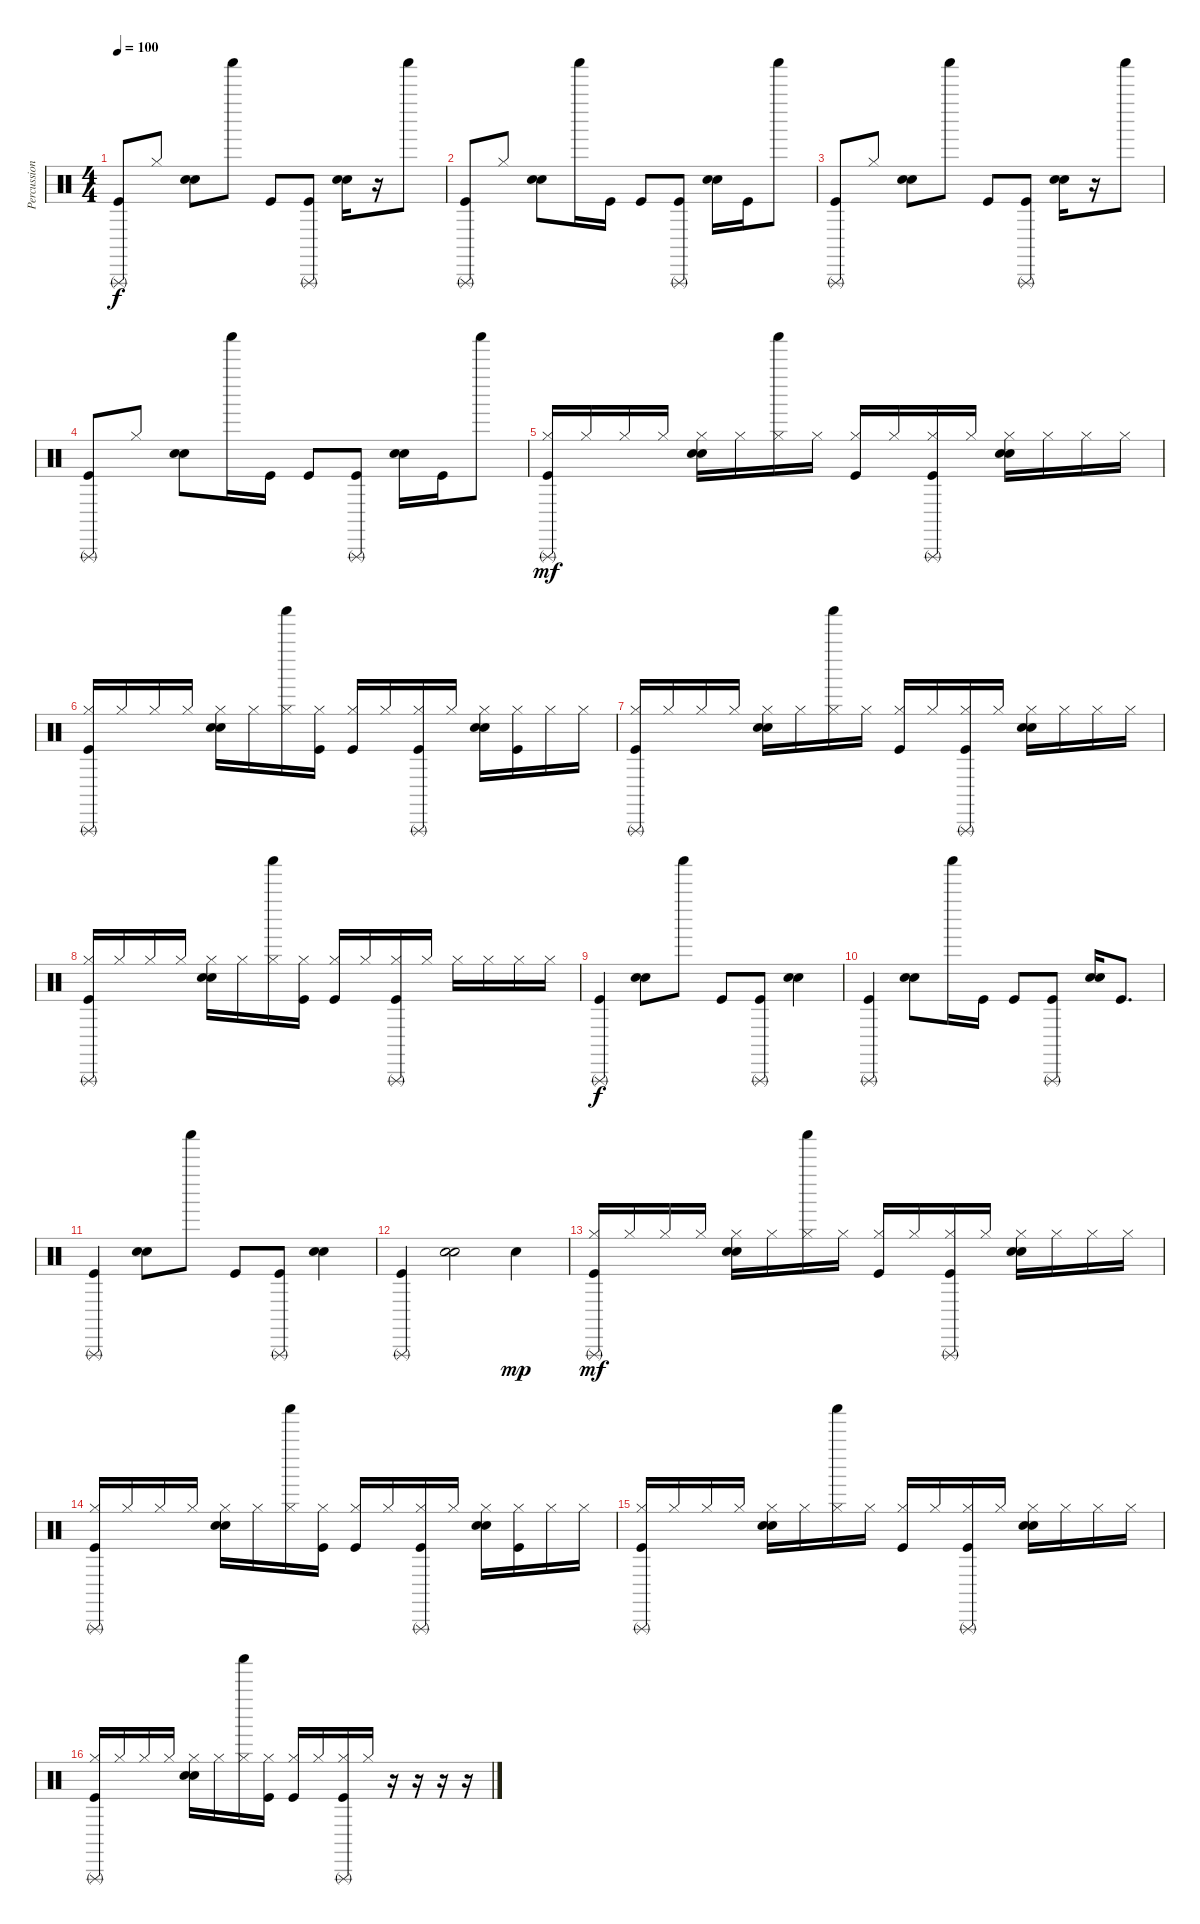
\track ("Percussion" "Percussion") {instrument percussion}
\staff {score}
\articulation defaults
\ts (4 4)
\tempo 100
\clef neutral
\ks c
("Triangle (rnute)" "Kick (hit)").8{dy f} "Hi-Hat (closed)".8 ("Hand Clap (hit)" "Electric Snare (hit)").8 "Shaker (hit)".8 "Kick (hit)".8 ("Triangle (rnute)" "Kick (hit)").8 ("Hand Clap (hit)" "Electric Snare (hit)").16 r.16 "Shaker (hit)".8 |
("Triangle (rnute)" "Kick (hit)").8 "Hi-Hat (closed)".8 ("Hand Clap (hit)" "Electric Snare (hit)").8 "Shaker (hit)".16 "Kick (hit)".16 "Kick (hit)".8 ("Triangle (rnute)" "Kick (hit)").8 ("Hand Clap (hit)" "Electric Snare (hit)").16 "Kick (hit)".16 "Shaker (hit)".8 |
("Triangle (rnute)" "Kick (hit)").8 "Hi-Hat (closed)".8 ("Hand Clap (hit)" "Electric Snare (hit)").8 "Shaker (hit)".8 "Kick (hit)".8 ("Triangle (rnute)" "Kick (hit)").8 ("Hand Clap (hit)" "Electric Snare (hit)").16 r.16 "Shaker (hit)".8 |
("Triangle (rnute)" "Kick (hit)").8 "Hi-Hat (closed)".8 ("Hand Clap (hit)" "Electric Snare (hit)").8 "Shaker (hit)".16 "Kick (hit)".16 "Kick (hit)".8 ("Triangle (rnute)" "Kick (hit)").8 ("Hand Clap (hit)" "Electric Snare (hit)").16 "Kick (hit)".16 "Shaker (hit)".8 |
("Triangle (rnute)" "Hi-Hat (closed)" "Kick (hit)").16{dy mf} "Hi-Hat (closed)".16 "Hi-Hat (closed)".16 "Hi-Hat (closed)".16 ("Hi-Hat (closed)" "Hand Clap (hit)" "Electric Snare (hit)").16 "Hi-Hat (closed)".16 ("Shaker (hit)" "Hi-Hat (closed)").16 "Hi-Hat (closed)".16 ("Hi-Hat (closed)" "Kick (hit)").16 "Hi-Hat (closed)".16 ("Triangle (rnute)" "Hi-Hat (closed)" "Kick (hit)").16 "Hi-Hat (closed)".16 ("Hi-Hat (closed)" "Hand Clap (hit)" "Electric Snare (hit)").16 "Hi-Hat (closed)".16 "Hi-Hat (closed)".16 "Hi-Hat (closed)".16 |
("Triangle (rnute)" "Hi-Hat (closed)" "Kick (hit)").16 "Hi-Hat (closed)".16 "Hi-Hat (closed)".16 "Hi-Hat (closed)".16 ("Hi-Hat (closed)" "Hand Clap (hit)" "Electric Snare (hit)").16 "Hi-Hat (closed)".16 ("Shaker (hit)" "Hi-Hat (closed)").16 ("Hi-Hat (closed)" "Kick (hit)").16 ("Hi-Hat (closed)" "Kick (hit)").16 "Hi-Hat (closed)".16 ("Triangle (rnute)" "Hi-Hat (closed)" "Kick (hit)").16 "Hi-Hat (closed)".16 ("Hi-Hat (closed)" "Hand Clap (hit)" "Electric Snare (hit)").16 ("Hi-Hat (closed)" "Kick (hit)").16 "Hi-Hat (closed)".16 "Hi-Hat (closed)".16 |
("Triangle (rnute)" "Hi-Hat (closed)" "Kick (hit)").16 "Hi-Hat (closed)".16 "Hi-Hat (closed)".16 "Hi-Hat (closed)".16 ("Hi-Hat (closed)" "Hand Clap (hit)" "Electric Snare (hit)").16 "Hi-Hat (closed)".16 ("Shaker (hit)" "Hi-Hat (closed)").16 "Hi-Hat (closed)".16 ("Hi-Hat (closed)" "Kick (hit)").16 "Hi-Hat (closed)".16 ("Triangle (rnute)" "Hi-Hat (closed)" "Kick (hit)").16 "Hi-Hat (closed)".16 ("Hi-Hat (closed)" "Hand Clap (hit)" "Electric Snare (hit)").16 "Hi-Hat (closed)".16 "Hi-Hat (closed)".16 "Hi-Hat (closed)".16 |
("Triangle (rnute)" "Hi-Hat (closed)" "Kick (hit)").16 "Hi-Hat (closed)".16 "Hi-Hat (closed)".16 "Hi-Hat (closed)".16 ("Hi-Hat (closed)" "Hand Clap (hit)" "Electric Snare (hit)").16 "Hi-Hat (closed)".16 ("Shaker (hit)" "Hi-Hat (closed)").16 ("Hi-Hat (closed)" "Kick (hit)").16 ("Hi-Hat (closed)" "Kick (hit)").16 "Hi-Hat (closed)".16 ("Triangle (rnute)" "Hi-Hat (closed)" "Kick (hit)").16 "Hi-Hat (closed)".16 "Hi-Hat (closed)".16 "Hi-Hat (closed)".16 "Hi-Hat (closed)".16 "Hi-Hat (closed)".16 |
("Triangle (rnute)" "Kick (hit)").4{dy f} ("Hand Clap (hit)" "Electric Snare (hit)").8 "Shaker (hit)".8 "Kick (hit)".8 ("Triangle (rnute)" "Kick (hit)").8 ("Hand Clap (hit)" "Electric Snare (hit)").4 |
("Triangle (rnute)" "Kick (hit)").4 ("Hand Clap (hit)" "Electric Snare (hit)").8 "Shaker (hit)".16 "Kick (hit)".16 "Kick (hit)".8 ("Triangle (rnute)" "Kick (hit)").8 ("Hand Clap (hit)" "Electric Snare (hit)").16 "Kick (hit)".8{d} |
("Triangle (rnute)" "Kick (hit)").4 ("Hand Clap (hit)" "Electric Snare (hit)").8 "Shaker (hit)".8 "Kick (hit)".8 ("Triangle (rnute)" "Kick (hit)").8 ("Hand Clap (hit)" "Electric Snare (hit)").4 |
("Triangle (rnute)" "Kick (hit)").4 ("Hand Clap (hit)" "Electric Snare (hit)").2 "Electric Snare (hit)".4{dy mp} |
("Triangle (rnute)" "Hi-Hat (closed)" "Kick (hit)").16{dy mf} "Hi-Hat (closed)".16 "Hi-Hat (closed)".16 "Hi-Hat (closed)".16 ("Hi-Hat (closed)" "Hand Clap (hit)" "Electric Snare (hit)").16 "Hi-Hat (closed)".16 ("Shaker (hit)" "Hi-Hat (closed)").16 "Hi-Hat (closed)".16 ("Hi-Hat (closed)" "Kick (hit)").16 "Hi-Hat (closed)".16 ("Triangle (rnute)" "Hi-Hat (closed)" "Kick (hit)").16 "Hi-Hat (closed)".16 ("Hi-Hat (closed)" "Hand Clap (hit)" "Electric Snare (hit)").16 "Hi-Hat (closed)".16 "Hi-Hat (closed)".16 "Hi-Hat (closed)".16 |
("Triangle (rnute)" "Hi-Hat (closed)" "Kick (hit)").16 "Hi-Hat (closed)".16 "Hi-Hat (closed)".16 "Hi-Hat (closed)".16 ("Hi-Hat (closed)" "Hand Clap (hit)" "Electric Snare (hit)").16 "Hi-Hat (closed)".16 ("Shaker (hit)" "Hi-Hat (closed)").16 ("Hi-Hat (closed)" "Kick (hit)").16 ("Hi-Hat (closed)" "Kick (hit)").16 "Hi-Hat (closed)".16 ("Triangle (rnute)" "Hi-Hat (closed)" "Kick (hit)").16 "Hi-Hat (closed)".16 ("Hi-Hat (closed)" "Hand Clap (hit)" "Electric Snare (hit)").16 ("Hi-Hat (closed)" "Kick (hit)").16 "Hi-Hat (closed)".16 "Hi-Hat (closed)".16 |
("Triangle (rnute)" "Hi-Hat (closed)" "Kick (hit)").16 "Hi-Hat (closed)".16 "Hi-Hat (closed)".16 "Hi-Hat (closed)".16 ("Hi-Hat (closed)" "Hand Clap (hit)" "Electric Snare (hit)").16 "Hi-Hat (closed)".16 ("Shaker (hit)" "Hi-Hat (closed)").16 "Hi-Hat (closed)".16 ("Hi-Hat (closed)" "Kick (hit)").16 "Hi-Hat (closed)".16 ("Triangle (rnute)" "Hi-Hat (closed)" "Kick (hit)").16 "Hi-Hat (closed)".16 ("Hi-Hat (closed)" "Hand Clap (hit)" "Electric Snare (hit)").16 "Hi-Hat (closed)".16 "Hi-Hat (closed)".16 "Hi-Hat (closed)".16 |
("Triangle (rnute)" "Hi-Hat (closed)" "Kick (hit)").16 "Hi-Hat (closed)".16 "Hi-Hat (closed)".16 "Hi-Hat (closed)".16 ("Hi-Hat (closed)" "Hand Clap (hit)" "Electric Snare (hit)").16 "Hi-Hat (closed)".16 ("Shaker (hit)" "Hi-Hat (closed)").16 ("Hi-Hat (closed)" "Kick (hit)").16 ("Hi-Hat (closed)" "Kick (hit)").16 "Hi-Hat (closed)".16 ("Triangle (rnute)" "Hi-Hat (closed)" "Kick (hit)").16 "Hi-Hat (closed)".16 r.16 r.16 r.16 r.16
